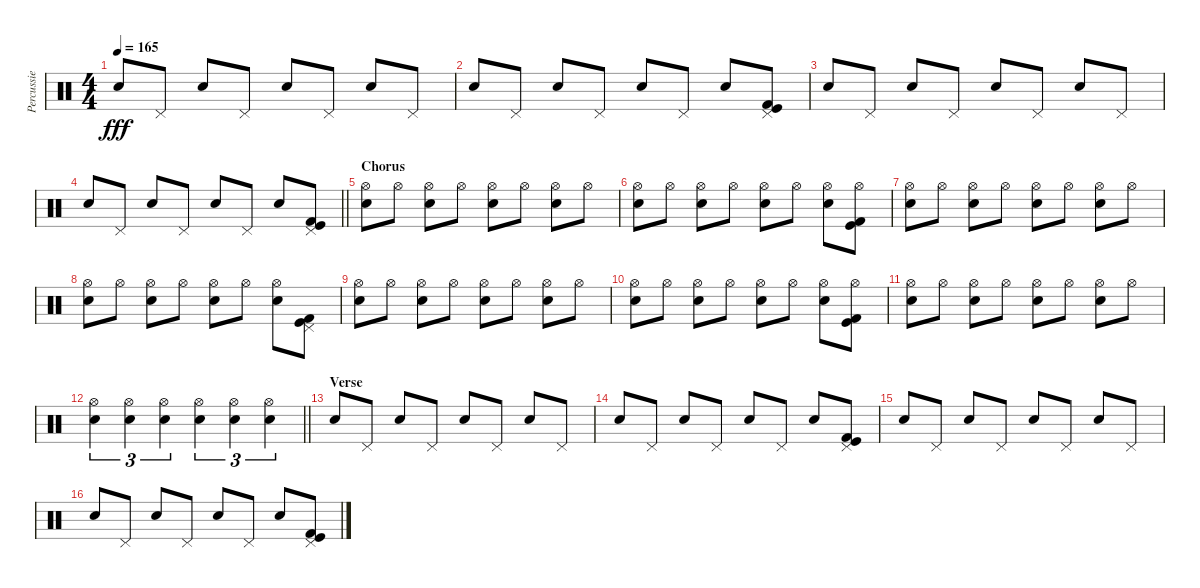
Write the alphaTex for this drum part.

\track ("Percussie" "Percussie") {instrument percussion}
\staff {score}
\articulation defaults
\ts (4 4)
\tempo 165
\clef neutral
\ks c "Snare (hit) 2".8{dy fff} "Pedal Hi-Hat (hit)".8 "Snare (hit) 2".8 "Pedal Hi-Hat (hit)".8 "Snare (hit) 2".8 "Pedal Hi-Hat (hit)".8 "Snare (hit) 2".8 "Pedal Hi-Hat (hit)".8
|
"Snare (hit) 2".8 "Pedal Hi-Hat (hit)".8 "Snare (hit) 2".8 "Pedal Hi-Hat (hit)".8 "Snare (hit) 2".8 "Pedal Hi-Hat (hit)".8 "Snare (hit) 2".8 ("Pedal Hi-Hat (hit)" "Kick (hit)" "Kick (hit) 2").8 |
"Snare (hit) 2".8 "Pedal Hi-Hat (hit)".8 "Snare (hit) 2".8 "Pedal Hi-Hat (hit)".8 "Snare (hit) 2".8 "Pedal Hi-Hat (hit)".8 "Snare (hit) 2".8 "Pedal Hi-Hat (hit)".8 |
\barLineRight lightlight "Snare (hit) 2".8 "Pedal Hi-Hat (hit)".8 "Snare (hit) 2".8 "Pedal Hi-Hat (hit)".8 "Snare (hit) 2".8 "Pedal Hi-Hat (hit)".8 "Snare (hit) 2".8
("Pedal Hi-Hat (hit)" "Kick (hit)" "Kick (hit) 2").8 |
\section ("" "Chorus")
("Hi-Hat (open)" "Snare (hit) 2").8 "Hi-Hat (open)".8 ("Hi-Hat (open)" "Snare (hit) 2").8 "Hi-Hat (open)".8 ("Hi-Hat (open)" "Snare (hit) 2").8 "Hi-Hat (open)".8 ("Hi-Hat (open)" "Snare (hit) 2").8 "Hi-Hat (open)".8 |
("Hi-Hat (open)" "Snare (hit) 2").8 "Hi-Hat (open)".8 ("Hi-Hat (open)" "Snare (hit) 2").8 "Hi-Hat (open)".8 ("Hi-Hat (open)" "Snare (hit) 2").8 "Hi-Hat (open)".8 ("Hi-Hat (open)" "Snare (hit) 2").8 ("Hi-Hat (open)" "Kick (hit)" "Kick (hit) 2").8 |
("Hi-Hat (open)" "Snare (hit) 2").8 "Hi-Hat (open)".8 ("Hi-Hat (open)" "Snare (hit) 2").8 "Hi-Hat (open)".8 ("Hi-Hat (open)" "Snare (hit) 2").8 "Hi-Hat (open)".8 ("Hi-Hat (open)" "Snare (hit) 2").8 "Hi-Hat (open)".8 |
("Hi-Hat (open)" "Snare (hit) 2").8 "Hi-Hat (open)".8 ("Hi-Hat (open)" "Snare (hit) 2").8 "Hi-Hat (open)".8 ("Hi-Hat (open)" "Snare (hit) 2").8 "Hi-Hat (open)".8 ("Hi-Hat (open)" "Snare (hit) 2").8 ("Pedal Hi-Hat (hit)" "Kick (hit)" "Kick (hit) 2").8 |
("Hi-Hat (open)" "Snare (hit) 2").8 "Hi-Hat (open)".8 ("Hi-Hat (open)" "Snare (hit) 2").8 "Hi-Hat (open)".8 ("Hi-Hat (open)" "Snare (hit) 2").8 "Hi-Hat (open)".8 ("Hi-Hat (open)" "Snare (hit) 2").8 "Hi-Hat (open)".8 |
("Hi-Hat (open)" "Snare (hit) 2").8 "Hi-Hat (open)".8 ("Hi-Hat (open)" "Snare (hit) 2").8 "Hi-Hat (open)".8 ("Hi-Hat (open)" "Snare (hit) 2").8 "Hi-Hat (open)".8 ("Hi-Hat (open)" "Snare (hit) 2").8 ("Hi-Hat (open)" "Kick (hit)" "Kick (hit) 2").8 |
("Hi-Hat (open)" "Snare (hit) 2").8 "Hi-Hat (open)".8 ("Hi-Hat (open)" "Snare (hit) 2").8 "Hi-Hat (open)".8 ("Hi-Hat (open)" "Snare (hit) 2").8 "Hi-Hat (open)".8 ("Hi-Hat (open)" "Snare (hit) 2").8 "Hi-Hat (open)".8 |
\barLineRight lightlight
("Hi-Hat (open)" "Snare (hit) 2").4{tu (3 2)} ("Hi-Hat (open)" "Snare (hit) 2").4{tu (3 2)} ("Hi-Hat (open)" "Snare (hit) 2").4{tu (3 2)} ("Hi-Hat (open)" "Snare (hit) 2").4{tu (3 2)} ("Hi-Hat (open)" "Snare (hit) 2").4{tu (3 2)} ("Hi-Hat (open)" "Snare (hit) 2").4{tu (3 2)} |
\section ("" "Verse")
"Snare (hit) 2".8 "Pedal Hi-Hat (hit)".8 "Snare (hit) 2".8 "Pedal Hi-Hat (hit)".8 "Snare (hit) 2".8 "Pedal Hi-Hat (hit)".8 "Snare (hit) 2".8 "Pedal Hi-Hat (hit)".8 |
"Snare (hit) 2".8 "Pedal Hi-Hat (hit)".8 "Snare (hit) 2".8 "Pedal Hi-Hat (hit)".8 "Snare (hit) 2".8 "Pedal Hi-Hat (hit)".8 "Snare (hit) 2".8 ("Pedal Hi-Hat (hit)" "Kick (hit)" "Kick (hit) 2").8 |
"Snare (hit) 2".8 "Pedal Hi-Hat (hit)".8 "Snare (hit) 2".8 "Pedal Hi-Hat (hit)".8 "Snare (hit) 2".8 "Pedal Hi-Hat (hit)".8 "Snare (hit) 2".8 "Pedal Hi-Hat (hit)".8 |
"Snare (hit) 2".8 "Pedal Hi-Hat (hit)".8 "Snare (hit) 2".8 "Pedal Hi-Hat (hit)".8 "Snare (hit) 2".8 "Pedal Hi-Hat (hit)".8 "Snare (hit) 2".8 ("Pedal Hi-Hat (hit)" "Kick (hit)" "Kick (hit) 2").8
